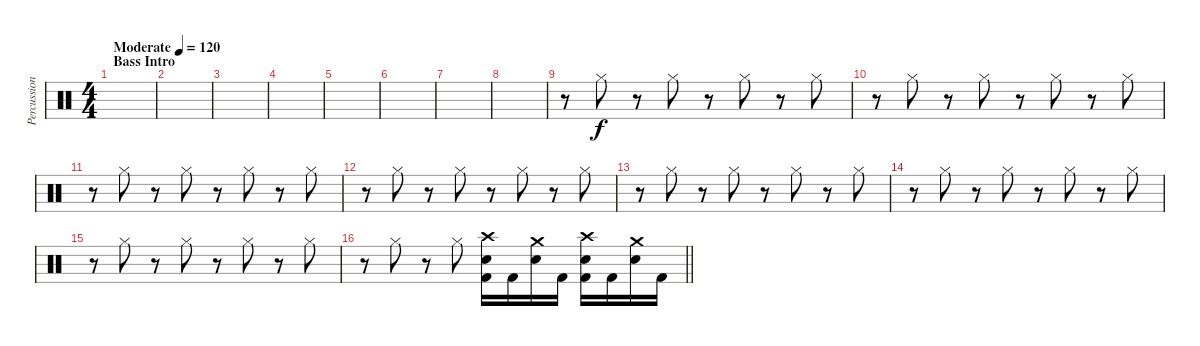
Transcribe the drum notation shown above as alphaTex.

\track ("Percussion" "Percussion") {instrument percussion}
\staff {score}
\articulation defaults
\ts (4 4)
\section ("" "Bass Intro")
\tempo (120 "Moderate")
\clef neutral
\ks c
|
|
|
|
|
|
|
|
r.8 "Hi-Hat (closed)".8 r.8 "Hi-Hat (closed)".8 r.8 "Hi-Hat (closed)".8 r.8 "Hi-Hat (closed)".8 |
r.8 "Hi-Hat (closed)".8 r.8 "Hi-Hat (closed)".8 r.8 "Hi-Hat (closed)".8 r.8 "Hi-Hat (closed)".8 |
r.8 "Hi-Hat (closed)".8 r.8 "Hi-Hat (closed)".8 r.8 "Hi-Hat (closed)".8 r.8 "Hi-Hat (closed)".8 |
r.8 "Hi-Hat (closed)".8 r.8 "Hi-Hat (closed)".8 r.8 "Hi-Hat (closed)".8 r.8 "Hi-Hat (closed)".8 |
r.8 "Hi-Hat (closed)".8 r.8 "Hi-Hat (closed)".8 r.8 "Hi-Hat (closed)".8 r.8 "Hi-Hat (closed)".8 |
r.8 "Hi-Hat (closed)".8 r.8 "Hi-Hat (closed)".8 r.8 "Hi-Hat (closed)".8 r.8 "Hi-Hat (closed)".8 |
r.8 "Hi-Hat (closed)".8 r.8 "Hi-Hat (closed)".8 r.8 "Hi-Hat (closed)".8 r.8 "Hi-Hat (closed)".8 |
\barLineRight lightlight
r.8 "Hi-Hat (closed)".8 r.8 "Hi-Hat (closed)".8 ("Crash high (hit)" "Electric Snare (hit)" "Kick (hit) 2").16 "Kick (hit) 2".16 ("Crash medium (hit)" "Electric Snare (hit)").16 "Kick (hit) 2".16 ("Crash high (hit)" "Electric Snare (hit)" "Kick (hit) 2").16 "Kick (hit) 2".16 ("Crash medium (hit)" "Electric Snare (hit)").16 "Kick (hit) 2".16
